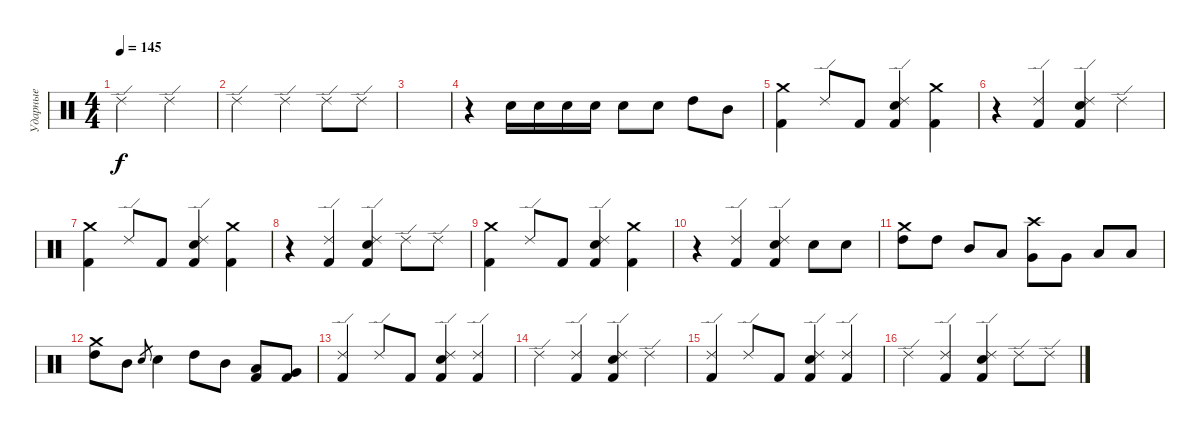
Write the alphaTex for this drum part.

\track ("Ударные" "Ударные") {instrument percussion}
\staff {score}
\articulation defaults
\ts (4 4)
\tempo 145
\clef neutral
\ks c "Ride (edge) 2".2{dy f} "Ride (edge) 2".2
|
"Ride (edge) 2".2 "Ride (edge) 2".4 "Ride (edge) 2".8 "Ride (edge) 2".8 |
|
r.4 "Electric Snare (hit)".16 "Electric Snare (hit)".16 "Electric Snare (hit)".16 "Electric Snare (hit)".16 "Electric Snare (hit)".8 "Electric Snare (hit)".8 "High Tom (hit)".8 "Mid Tom (hit)".8 |
("Crash medium (hit)" "Kick (hit) 2").4 "Ride (edge) 2".8 "Kick (hit) 2".8 ("Ride (edge) 2" "Electric Snare (hit)" "Kick (hit) 2").4 ("Crash medium (hit)" "Kick (hit) 2").4 |
r.4 ("Ride (edge) 2" "Kick (hit) 2").4 ("Ride (edge) 2" "Electric Snare (hit)" "Kick (hit) 2").4 "Ride (edge) 2".4 |
("Crash medium (hit)" "Kick (hit) 2").4 "Ride (edge) 2".8 "Kick (hit) 2".8 ("Ride (edge) 2" "Electric Snare (hit)" "Kick (hit) 2").4 ("Crash medium (hit)" "Kick (hit) 2").4 |
r.4 ("Ride (edge) 2" "Kick (hit) 2").4 ("Ride (edge) 2" "Electric Snare (hit)" "Kick (hit) 2").4 "Ride (edge) 2".8 "Ride (edge) 2".8 |
("Crash medium (hit)" "Kick (hit) 2").4 "Ride (edge) 2".8 "Kick (hit) 2".8 ("Ride (edge) 2" "Electric Snare (hit)" "Kick (hit) 2").4 ("Crash medium (hit)" "Kick (hit) 2").4 |
r.4 ("Ride (edge) 2" "Kick (hit) 2").4 ("Ride (edge) 2" "Electric Snare (hit)" "Kick (hit) 2").4 "Electric Snare (hit)".8 "Electric Snare (hit)".8 |
("High Tom (hit)" "Crash medium (hit)").8 "High Tom (hit)".8 "Mid Tom (hit)".8 "Low Tom (hit)".8 ("Very Low Tom (hit)" "Crash high (hit)").8 "Very Low Tom (hit)".8 "Low Floor Tom (hit)".8 "Low Floor Tom (hit)".8 |
("Crash medium (hit)" "High Tom (hit)").8 "Mid Tom (hit)".8 "Electric Snare (hit)".8{gr} "Electric Snare (hit)".4 "High Tom (hit)".8 "Mid Tom (hit)".8 ("Low Tom (hit)" "Kick (hit) 2").8 ("Very Low Tom (hit)" "Kick (hit) 2").8 |
("Ride (edge) 2" "Kick (hit) 2").4 "Ride (edge) 2".8 "Kick (hit) 2".8 ("Ride (edge) 2" "Electric Snare (hit)" "Kick (hit) 2").4 ("Ride (edge) 2" "Kick (hit) 2").4 |
"Ride (edge) 2".4 ("Ride (edge) 2" "Kick (hit) 2").4 ("Ride (edge) 2" "Electric Snare (hit)" "Kick (hit) 2").4 "Ride (edge) 2".4 |
("Ride (edge) 2" "Kick (hit) 2").4 "Ride (edge) 2".8 "Kick (hit) 2".8 ("Ride (edge) 2" "Electric Snare (hit)" "Kick (hit) 2").4 ("Ride (edge) 2" "Kick (hit) 2").4 |
"Ride (edge) 2".4 ("Ride (edge) 2" "Kick (hit) 2").4 ("Ride (edge) 2" "Electric Snare (hit)" "Kick (hit) 2").4 "Ride (edge) 2".8 "Ride (edge) 2".8
